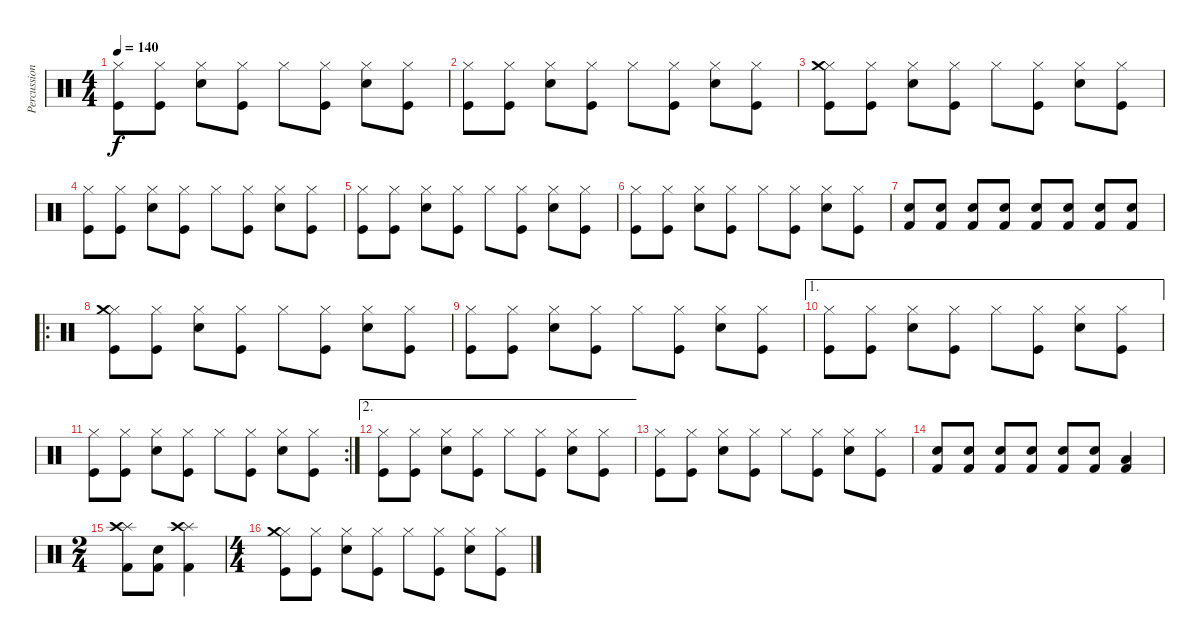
\track ("Percussion" "Percussion") {instrument percussion}
\staff {score}
\articulation defaults
\ts (4 4)
\tempo 140
\clef neutral
\ks c
("Kick (hit)" "Hi-Hat (closed)").8{dy f} ("Kick (hit)" "Hi-Hat (closed)").8 ("Electric Snare (hit)" "Hi-Hat (closed)").8 ("Kick (hit)" "Hi-Hat (closed)").8 "Hi-Hat (closed)".8 ("Kick (hit)" "Hi-Hat (closed)").8 ("Electric Snare (hit)" "Hi-Hat (closed)").8 ("Kick (hit)" "Hi-Hat (closed)").8 |
("Kick (hit)" "Hi-Hat (closed)").8 ("Kick (hit)" "Hi-Hat (closed)").8 ("Electric Snare (hit)" "Hi-Hat (closed)").8 ("Kick (hit)" "Hi-Hat (closed)").8 "Hi-Hat (closed)".8 ("Kick (hit)" "Hi-Hat (closed)").8 ("Electric Snare (hit)" "Hi-Hat (closed)").8 ("Kick (hit)" "Hi-Hat (closed)").8 |
("Kick (hit)" "Hi-Hat (closed)" "Crash medium (hit)").8 ("Kick (hit)" "Hi-Hat (closed)").8 ("Electric Snare (hit)" "Hi-Hat (closed)").8 ("Kick (hit)" "Hi-Hat (closed)").8 "Hi-Hat (closed)".8 ("Kick (hit)" "Hi-Hat (closed)").8 ("Electric Snare (hit)" "Hi-Hat (closed)").8 ("Kick (hit)" "Hi-Hat (closed)").8 |
("Kick (hit)" "Hi-Hat (closed)").8 ("Kick (hit)" "Hi-Hat (closed)").8 ("Electric Snare (hit)" "Hi-Hat (closed)").8 ("Kick (hit)" "Hi-Hat (closed)").8 "Hi-Hat (closed)".8 ("Kick (hit)" "Hi-Hat (closed)").8 ("Electric Snare (hit)" "Hi-Hat (closed)").8 ("Kick (hit)" "Hi-Hat (closed)").8 |
("Kick (hit)" "Hi-Hat (closed)").8 ("Kick (hit)" "Hi-Hat (closed)").8 ("Electric Snare (hit)" "Hi-Hat (closed)").8 ("Kick (hit)" "Hi-Hat (closed)").8 "Hi-Hat (closed)".8 ("Kick (hit)" "Hi-Hat (closed)").8 ("Electric Snare (hit)" "Hi-Hat (closed)").8 ("Kick (hit)" "Hi-Hat (closed)").8 |
("Kick (hit)" "Hi-Hat (closed)").8 ("Kick (hit)" "Hi-Hat (closed)").8 ("Electric Snare (hit)" "Hi-Hat (closed)").8 ("Kick (hit)" "Hi-Hat (closed)").8 "Hi-Hat (closed)".8 ("Kick (hit)" "Hi-Hat (closed)").8 ("Electric Snare (hit)" "Hi-Hat (closed)").8 ("Kick (hit)" "Hi-Hat (closed)").8 |
("Snare (hit) 2" "Kick (hit) 2").8 ("Snare (hit) 2" "Kick (hit) 2").8 ("Snare (hit) 2" "Kick (hit) 2").8 ("Snare (hit) 2" "Kick (hit) 2").8 ("Snare (hit) 2" "Kick (hit) 2").8 ("Snare (hit) 2" "Kick (hit) 2").8 ("Snare (hit) 2" "Kick (hit) 2").8 ("Snare (hit) 2" "Kick (hit) 2").8 |
\ro
("Kick (hit)" "Hi-Hat (closed)" "Crash medium (hit)").8 ("Kick (hit)" "Hi-Hat (closed)").8 ("Electric Snare (hit)" "Hi-Hat (closed)").8 ("Kick (hit)" "Hi-Hat (closed)").8 "Hi-Hat (closed)".8 ("Kick (hit)" "Hi-Hat (closed)").8 ("Electric Snare (hit)" "Hi-Hat (closed)").8 ("Kick (hit)" "Hi-Hat (closed)").8 |
("Kick (hit)" "Hi-Hat (closed)").8 ("Kick (hit)" "Hi-Hat (closed)").8 ("Electric Snare (hit)" "Hi-Hat (closed)").8 ("Kick (hit)" "Hi-Hat (closed)").8 "Hi-Hat (closed)".8 ("Kick (hit)" "Hi-Hat (closed)").8 ("Electric Snare (hit)" "Hi-Hat (closed)").8 ("Kick (hit)" "Hi-Hat (closed)").8 |
\ae 1
("Kick (hit)" "Hi-Hat (closed)").8 ("Kick (hit)" "Hi-Hat (closed)").8 ("Electric Snare (hit)" "Hi-Hat (closed)").8 ("Kick (hit)" "Hi-Hat (closed)").8 "Hi-Hat (closed)".8 ("Kick (hit)" "Hi-Hat (closed)").8 ("Electric Snare (hit)" "Hi-Hat (closed)").8 ("Kick (hit)" "Hi-Hat (closed)").8 |
\rc 2
("Kick (hit)" "Hi-Hat (closed)").8 ("Kick (hit)" "Hi-Hat (closed)").8 ("Electric Snare (hit)" "Hi-Hat (closed)").8 ("Kick (hit)" "Hi-Hat (closed)").8 "Hi-Hat (closed)".8 ("Kick (hit)" "Hi-Hat (closed)").8 ("Electric Snare (hit)" "Hi-Hat (closed)").8 ("Kick (hit)" "Hi-Hat (closed)").8 |
\ae 2
("Kick (hit)" "Hi-Hat (closed)").8 ("Kick (hit)" "Hi-Hat (closed)").8 ("Electric Snare (hit)" "Hi-Hat (closed)").8 ("Kick (hit)" "Hi-Hat (closed)").8 "Hi-Hat (closed)".8 ("Kick (hit)" "Hi-Hat (closed)").8 ("Electric Snare (hit)" "Hi-Hat (closed)").8 ("Kick (hit)" "Hi-Hat (closed)").8 |
("Kick (hit)" "Hi-Hat (closed)").8 ("Kick (hit)" "Hi-Hat (closed)").8 ("Electric Snare (hit)" "Hi-Hat (closed)").8 ("Kick (hit)" "Hi-Hat (closed)").8 "Hi-Hat (closed)".8 ("Kick (hit)" "Hi-Hat (closed)").8 ("Electric Snare (hit)" "Hi-Hat (closed)").8 ("Kick (hit)" "Hi-Hat (closed)").8 |
("Snare (hit) 2" "Kick (hit) 2").8 ("Snare (hit) 2" "Kick (hit) 2").8 ("Snare (hit) 2" "Kick (hit) 2").8 ("Snare (hit) 2" "Kick (hit) 2").8 ("Snare (hit) 2" "Kick (hit) 2").8 ("Snare (hit) 2" "Kick (hit) 2").8 ("Low Tom (hit)" "Kick (hit) 2").4 |
\ts (2 4)
("Splash (hit)" "Crash high (hit)" "Kick (hit) 2").8 ("Snare (hit) 2" "Kick (hit) 2").8 ("Splash (hit)" "Crash high (hit)" "Kick (hit) 2").4 |
\ts (4 4)
("Kick (hit)" "Hi-Hat (closed)" "Crash medium (hit)").8 ("Kick (hit)" "Hi-Hat (closed)").8 ("Electric Snare (hit)" "Hi-Hat (closed)").8 ("Kick (hit)" "Hi-Hat (closed)").8 "Hi-Hat (closed)".8 ("Kick (hit)" "Hi-Hat (closed)").8 ("Electric Snare (hit)" "Hi-Hat (closed)").8 ("Kick (hit)" "Hi-Hat (closed)").8
